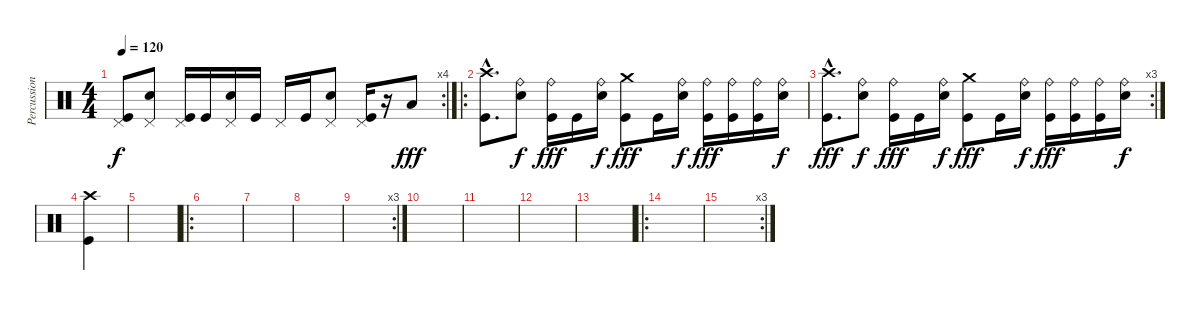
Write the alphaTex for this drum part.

\track ("Percussion" "Percussion") {instrument percussion}
\staff {score}
\articulation defaults
\rc 4
\ts (4 4)
\tempo 120
\clef neutral
\ks c
("Pedal Hi-Hat (hit)" "Kick (hit)").8{dy f} ("Pedal Hi-Hat (hit)" "Snare (hit) 2").8 ("Pedal Hi-Hat (hit)" "Kick (hit)").16 "Kick (hit)".16 ("Pedal Hi-Hat (hit)" "Snare (hit) 2").16 "Kick (hit)".16 "Pedal Hi-Hat (hit)".16 "Kick (hit)".16 ("Pedal Hi-Hat (hit)" "Snare (hit) 2").8 ("Pedal Hi-Hat (hit)" "Kick (hit)").16 r.16 "Low Tom (hit)".8{dy fff} |
\ro
("Crash high (hit)"{hac} "Kick (hit)"{hac}).8{d} ("Ride (bell)" "Snare (hit) 2").8{dy f} ("Ride (bell)" "Kick (hit)").16{dy fff} "Kick (hit)".16 ("Ride (bell)" "Snare (hit) 2").16{dy f} ("Crash medium (hit)" "Kick (hit)").8{dy fff} "Kick (hit)".16 ("Ride (bell)" "Snare (hit) 2").16{dy f} ("Ride (bell)" "Kick (hit)").16{dy fff} ("Ride (bell)" "Kick (hit)").16 ("Ride (bell)" "Kick (hit)").16 ("Ride (bell)" "Snare (hit) 2").16{dy f} |
\rc 3
("Crash high (hit)"{hac} "Kick (hit)"{hac}).8{d dy fff} ("Ride (bell)" "Snare (hit) 2").8{dy f} ("Ride (bell)" "Kick (hit)").16{dy fff} "Kick (hit)".16 ("Ride (bell)" "Snare (hit) 2").16{dy f} ("Crash medium (hit)" "Kick (hit)").8{dy fff} "Kick (hit)".16 ("Ride (bell)" "Snare (hit) 2").16{dy f} ("Ride (bell)" "Kick (hit)").16{dy fff} ("Ride (bell)" "Kick (hit)").16 ("Ride (bell)" "Kick (hit)").16 ("Ride (bell)" "Snare (hit) 2").16{dy f} |
("Crash high (hit)" "Kick (hit)").4 |
|
\ro
|
|
|
\rc 3
|
|
|
|
|
\ro
|
\rc 3
